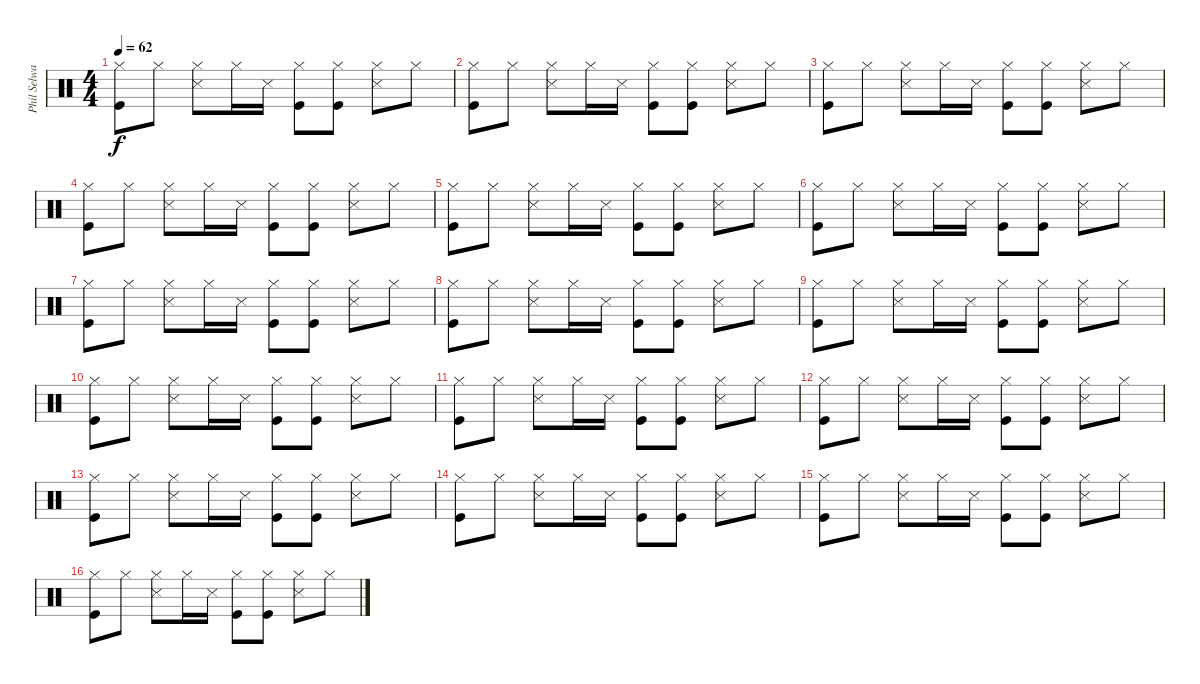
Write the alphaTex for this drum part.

\track ("Phil Selway" "Phil Selwa") {instrument percussion}
\staff {score}
\articulation defaults
\ts (4 4)
\tempo 62
\clef neutral
\ks c
("Hi-Hat (closed)" "Kick (hit)").8{dy f} "Hi-Hat (closed)".8 ("Hi-Hat (closed)" "Snare (side stick) 3").8 "Hi-Hat (closed)".16 "Snare (side stick) 3".16 ("Hi-Hat (closed)" "Kick (hit)").8 ("Hi-Hat (closed)" "Kick (hit)").8 ("Hi-Hat (closed)" "Snare (side stick) 3").8 "Hi-Hat (closed)".8 |
("Hi-Hat (closed)" "Kick (hit)").8 "Hi-Hat (closed)".8 ("Hi-Hat (closed)" "Snare (side stick) 3").8 "Hi-Hat (closed)".16 "Snare (side stick) 3".16 ("Hi-Hat (closed)" "Kick (hit)").8 ("Hi-Hat (closed)" "Kick (hit)").8 ("Hi-Hat (closed)" "Snare (side stick) 3").8 "Hi-Hat (closed)".8 |
("Hi-Hat (closed)" "Kick (hit)").8 "Hi-Hat (closed)".8 ("Hi-Hat (closed)" "Snare (side stick) 3").8 "Hi-Hat (closed)".16 "Snare (side stick) 3".16 ("Hi-Hat (closed)" "Kick (hit)").8 ("Hi-Hat (closed)" "Kick (hit)").8 ("Hi-Hat (closed)" "Snare (side stick) 3").8 "Hi-Hat (closed)".8 |
("Hi-Hat (closed)" "Kick (hit)").8 "Hi-Hat (closed)".8 ("Hi-Hat (closed)" "Snare (side stick) 3").8 "Hi-Hat (closed)".16 "Snare (side stick) 3".16 ("Hi-Hat (closed)" "Kick (hit)").8 ("Hi-Hat (closed)" "Kick (hit)").8 ("Hi-Hat (closed)" "Snare (side stick) 3").8 "Hi-Hat (closed)".8 |
("Hi-Hat (closed)" "Kick (hit)").8 "Hi-Hat (closed)".8 ("Hi-Hat (closed)" "Snare (side stick) 3").8 "Hi-Hat (closed)".16 "Snare (side stick) 3".16 ("Hi-Hat (closed)" "Kick (hit)").8 ("Hi-Hat (closed)" "Kick (hit)").8 ("Hi-Hat (closed)" "Snare (side stick) 3").8 "Hi-Hat (closed)".8 |
("Hi-Hat (closed)" "Kick (hit)").8 "Hi-Hat (closed)".8 ("Hi-Hat (closed)" "Snare (side stick) 3").8 "Hi-Hat (closed)".16 "Snare (side stick) 3".16 ("Hi-Hat (closed)" "Kick (hit)").8 ("Hi-Hat (closed)" "Kick (hit)").8 ("Hi-Hat (closed)" "Snare (side stick) 3").8 "Hi-Hat (closed)".8 |
("Hi-Hat (closed)" "Kick (hit)").8 "Hi-Hat (closed)".8 ("Hi-Hat (closed)" "Snare (side stick) 3").8 "Hi-Hat (closed)".16 "Snare (side stick) 3".16 ("Hi-Hat (closed)" "Kick (hit)").8 ("Hi-Hat (closed)" "Kick (hit)").8 ("Hi-Hat (closed)" "Snare (side stick) 3").8 "Hi-Hat (closed)".8 |
("Hi-Hat (closed)" "Kick (hit)").8 "Hi-Hat (closed)".8 ("Hi-Hat (closed)" "Snare (side stick) 3").8 "Hi-Hat (closed)".16 "Snare (side stick) 3".16 ("Hi-Hat (closed)" "Kick (hit)").8 ("Hi-Hat (closed)" "Kick (hit)").8 ("Hi-Hat (closed)" "Snare (side stick) 3").8 "Hi-Hat (closed)".8 |
("Hi-Hat (closed)" "Kick (hit)").8 "Hi-Hat (closed)".8 ("Hi-Hat (closed)" "Snare (side stick) 3").8 "Hi-Hat (closed)".16 "Snare (side stick) 3".16 ("Hi-Hat (closed)" "Kick (hit)").8 ("Hi-Hat (closed)" "Kick (hit)").8 ("Hi-Hat (closed)" "Snare (side stick) 3").8 "Hi-Hat (closed)".8 |
("Hi-Hat (closed)" "Kick (hit)").8 "Hi-Hat (closed)".8 ("Hi-Hat (closed)" "Snare (side stick) 3").8 "Hi-Hat (closed)".16 "Snare (side stick) 3".16 ("Hi-Hat (closed)" "Kick (hit)").8 ("Hi-Hat (closed)" "Kick (hit)").8 ("Hi-Hat (closed)" "Snare (side stick) 3").8 "Hi-Hat (closed)".8 |
("Hi-Hat (closed)" "Kick (hit)").8 "Hi-Hat (closed)".8 ("Hi-Hat (closed)" "Snare (side stick) 3").8 "Hi-Hat (closed)".16 "Snare (side stick) 3".16 ("Hi-Hat (closed)" "Kick (hit)").8 ("Hi-Hat (closed)" "Kick (hit)").8 ("Hi-Hat (closed)" "Snare (side stick) 3").8 "Hi-Hat (closed)".8 |
("Hi-Hat (closed)" "Kick (hit)").8 "Hi-Hat (closed)".8 ("Hi-Hat (closed)" "Snare (side stick) 3").8 "Hi-Hat (closed)".16 "Snare (side stick) 3".16 ("Hi-Hat (closed)" "Kick (hit)").8 ("Hi-Hat (closed)" "Kick (hit)").8 ("Hi-Hat (closed)" "Snare (side stick) 3").8 "Hi-Hat (closed)".8 |
("Hi-Hat (closed)" "Kick (hit)").8 "Hi-Hat (closed)".8 ("Hi-Hat (closed)" "Snare (side stick) 3").8 "Hi-Hat (closed)".16 "Snare (side stick) 3".16 ("Hi-Hat (closed)" "Kick (hit)").8 ("Hi-Hat (closed)" "Kick (hit)").8 ("Hi-Hat (closed)" "Snare (side stick) 3").8 "Hi-Hat (closed)".8 |
("Hi-Hat (closed)" "Kick (hit)").8 "Hi-Hat (closed)".8 ("Hi-Hat (closed)" "Snare (side stick) 3").8 "Hi-Hat (closed)".16 "Snare (side stick) 3".16 ("Hi-Hat (closed)" "Kick (hit)").8 ("Hi-Hat (closed)" "Kick (hit)").8 ("Hi-Hat (closed)" "Snare (side stick) 3").8 "Hi-Hat (closed)".8 |
("Hi-Hat (closed)" "Kick (hit)").8 "Hi-Hat (closed)".8 ("Hi-Hat (closed)" "Snare (side stick) 3").8 "Hi-Hat (closed)".16 "Snare (side stick) 3".16 ("Hi-Hat (closed)" "Kick (hit)").8 ("Hi-Hat (closed)" "Kick (hit)").8 ("Hi-Hat (closed)" "Snare (side stick) 3").8 "Hi-Hat (closed)".8 |
("Hi-Hat (closed)" "Kick (hit)").8 "Hi-Hat (closed)".8 ("Hi-Hat (closed)" "Snare (side stick) 3").8 "Hi-Hat (closed)".16 "Snare (side stick) 3".16 ("Hi-Hat (closed)" "Kick (hit)").8 ("Hi-Hat (closed)" "Kick (hit)").8 ("Hi-Hat (closed)" "Snare (side stick) 3").8 "Hi-Hat (closed)".8
